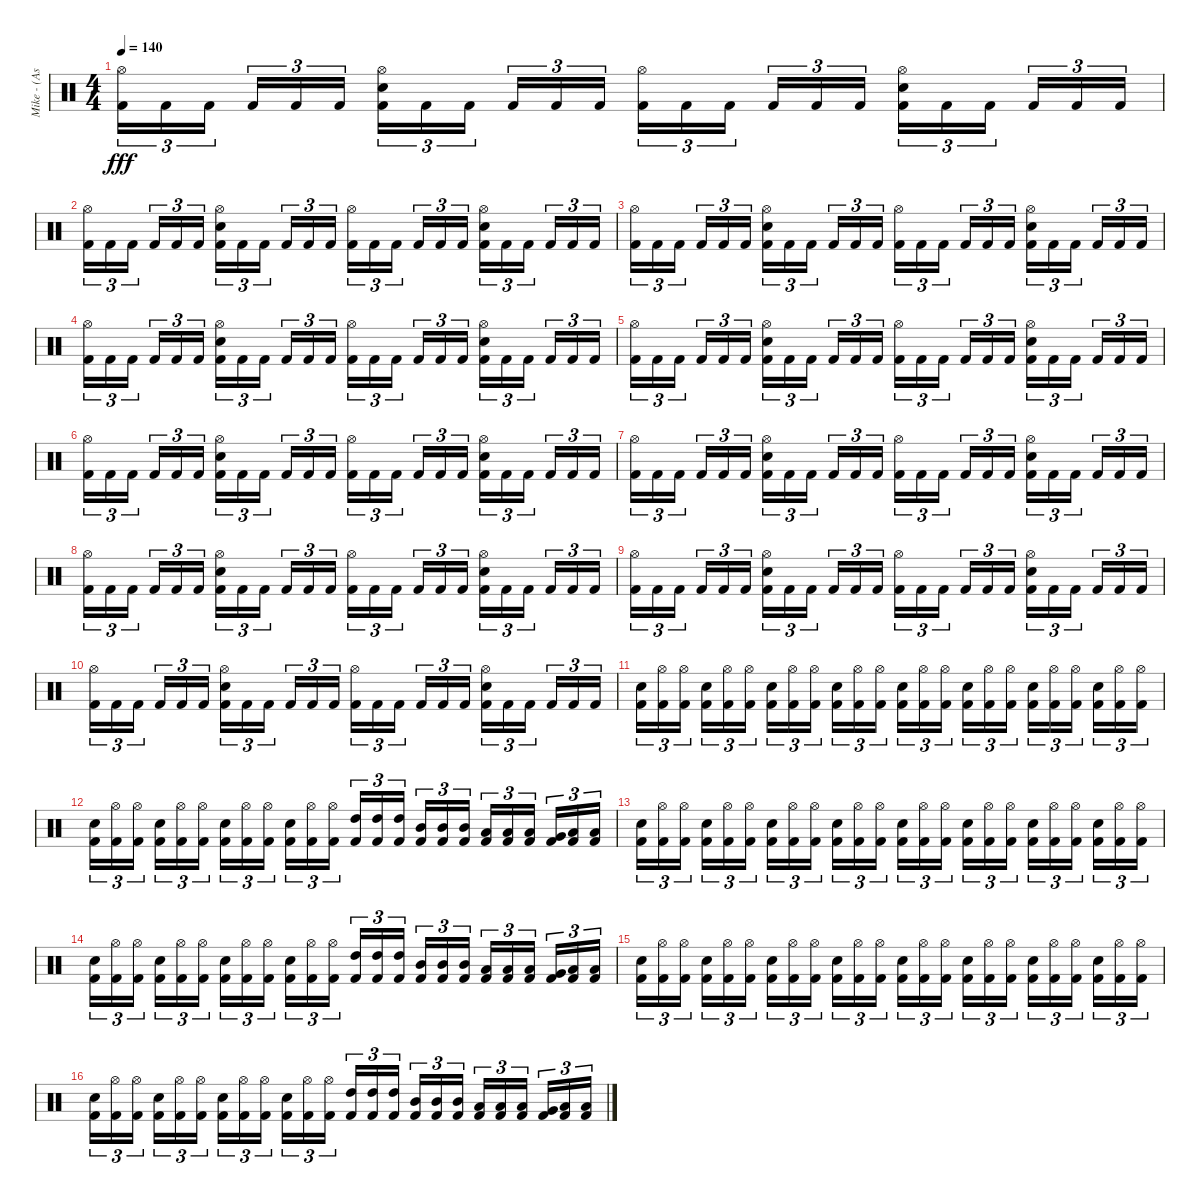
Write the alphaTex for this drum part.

\track ("Mike - (Assault and Battery)" "Mike - (As") {instrument percussion}
\staff {score}
\articulation defaults
\ts (4 4)
\tempo 140
\clef neutral
\ks c
("Hi-Hat (open)" "Kick (hit) 2").16{tu (3 2) dy fff} "Kick (hit) 2".16{tu (3 2)} "Kick (hit) 2".16{tu (3 2)} "Kick (hit) 2".16{tu (3 2)} "Kick (hit) 2".16{tu (3 2)} "Kick (hit) 2".16{tu (3 2)} ("Hi-Hat (open)" "Electric Snare (hit)" "Kick (hit) 2").16{tu (3 2)} "Kick (hit) 2".16{tu (3 2)} "Kick (hit) 2".16{tu (3 2)} "Kick (hit) 2".16{tu (3 2)} "Kick (hit) 2".16{tu (3 2)} "Kick (hit) 2".16{tu (3 2)} ("Hi-Hat (open)" "Kick (hit) 2").16{tu (3 2)} "Kick (hit) 2".16{tu (3 2)} "Kick (hit) 2".16{tu (3 2)} "Kick (hit) 2".16{tu (3 2)} "Kick (hit) 2".16{tu (3 2)} "Kick (hit) 2".16{tu (3 2)} ("Hi-Hat (open)" "Electric Snare (hit)" "Kick (hit) 2").16{tu (3 2)} "Kick (hit) 2".16{tu (3 2)} "Kick (hit) 2".16{tu (3 2)} "Kick (hit) 2".16{tu (3 2)} "Kick (hit) 2".16{tu (3 2)} "Kick (hit) 2".16{tu (3 2)} |
("Hi-Hat (open)" "Kick (hit) 2").16{tu (3 2)} "Kick (hit) 2".16{tu (3 2)} "Kick (hit) 2".16{tu (3 2)} "Kick (hit) 2".16{tu (3 2)} "Kick (hit) 2".16{tu (3 2)} "Kick (hit) 2".16{tu (3 2)} ("Hi-Hat (open)" "Electric Snare (hit)" "Kick (hit) 2").16{tu (3 2)} "Kick (hit) 2".16{tu (3 2)} "Kick (hit) 2".16{tu (3 2)} "Kick (hit) 2".16{tu (3 2)} "Kick (hit) 2".16{tu (3 2)} "Kick (hit) 2".16{tu (3 2)} ("Hi-Hat (open)" "Kick (hit) 2").16{tu (3 2)} "Kick (hit) 2".16{tu (3 2)} "Kick (hit) 2".16{tu (3 2)} "Kick (hit) 2".16{tu (3 2)} "Kick (hit) 2".16{tu (3 2)} "Kick (hit) 2".16{tu (3 2)} ("Hi-Hat (open)" "Electric Snare (hit)" "Kick (hit) 2").16{tu (3 2)} "Kick (hit) 2".16{tu (3 2)} "Kick (hit) 2".16{tu (3 2)} "Kick (hit) 2".16{tu (3 2)} "Kick (hit) 2".16{tu (3 2)} "Kick (hit) 2".16{tu (3 2)} |
("Hi-Hat (open)" "Kick (hit) 2").16{tu (3 2)} "Kick (hit) 2".16{tu (3 2)} "Kick (hit) 2".16{tu (3 2)} "Kick (hit) 2".16{tu (3 2)} "Kick (hit) 2".16{tu (3 2)} "Kick (hit) 2".16{tu (3 2)} ("Hi-Hat (open)" "Electric Snare (hit)" "Kick (hit) 2").16{tu (3 2)} "Kick (hit) 2".16{tu (3 2)} "Kick (hit) 2".16{tu (3 2)} "Kick (hit) 2".16{tu (3 2)} "Kick (hit) 2".16{tu (3 2)} "Kick (hit) 2".16{tu (3 2)} ("Hi-Hat (open)" "Kick (hit) 2").16{tu (3 2)} "Kick (hit) 2".16{tu (3 2)} "Kick (hit) 2".16{tu (3 2)} "Kick (hit) 2".16{tu (3 2)} "Kick (hit) 2".16{tu (3 2)} "Kick (hit) 2".16{tu (3 2)} ("Hi-Hat (open)" "Electric Snare (hit)" "Kick (hit) 2").16{tu (3 2)} "Kick (hit) 2".16{tu (3 2)} "Kick (hit) 2".16{tu (3 2)} "Kick (hit) 2".16{tu (3 2)} "Kick (hit) 2".16{tu (3 2)} "Kick (hit) 2".16{tu (3 2)} |
("Hi-Hat (open)" "Kick (hit) 2").16{tu (3 2)} "Kick (hit) 2".16{tu (3 2)} "Kick (hit) 2".16{tu (3 2)} "Kick (hit) 2".16{tu (3 2)} "Kick (hit) 2".16{tu (3 2)} "Kick (hit) 2".16{tu (3 2)} ("Hi-Hat (open)" "Electric Snare (hit)" "Kick (hit) 2").16{tu (3 2)} "Kick (hit) 2".16{tu (3 2)} "Kick (hit) 2".16{tu (3 2)} "Kick (hit) 2".16{tu (3 2)} "Kick (hit) 2".16{tu (3 2)} "Kick (hit) 2".16{tu (3 2)} ("Hi-Hat (open)" "Kick (hit) 2").16{tu (3 2)} "Kick (hit) 2".16{tu (3 2)} "Kick (hit) 2".16{tu (3 2)} "Kick (hit) 2".16{tu (3 2)} "Kick (hit) 2".16{tu (3 2)} "Kick (hit) 2".16{tu (3 2)} ("Hi-Hat (open)" "Electric Snare (hit)" "Kick (hit) 2").16{tu (3 2)} "Kick (hit) 2".16{tu (3 2)} "Kick (hit) 2".16{tu (3 2)} "Kick (hit) 2".16{tu (3 2)} "Kick (hit) 2".16{tu (3 2)} "Kick (hit) 2".16{tu (3 2)} |
("Hi-Hat (open)" "Kick (hit) 2").16{tu (3 2)} "Kick (hit) 2".16{tu (3 2)} "Kick (hit) 2".16{tu (3 2)} "Kick (hit) 2".16{tu (3 2)} "Kick (hit) 2".16{tu (3 2)} "Kick (hit) 2".16{tu (3 2)} ("Hi-Hat (open)" "Electric Snare (hit)" "Kick (hit) 2").16{tu (3 2)} "Kick (hit) 2".16{tu (3 2)} "Kick (hit) 2".16{tu (3 2)} "Kick (hit) 2".16{tu (3 2)} "Kick (hit) 2".16{tu (3 2)} "Kick (hit) 2".16{tu (3 2)} ("Hi-Hat (open)" "Kick (hit) 2").16{tu (3 2)} "Kick (hit) 2".16{tu (3 2)} "Kick (hit) 2".16{tu (3 2)} "Kick (hit) 2".16{tu (3 2)} "Kick (hit) 2".16{tu (3 2)} "Kick (hit) 2".16{tu (3 2)} ("Hi-Hat (open)" "Electric Snare (hit)" "Kick (hit) 2").16{tu (3 2)} "Kick (hit) 2".16{tu (3 2)} "Kick (hit) 2".16{tu (3 2)} "Kick (hit) 2".16{tu (3 2)} "Kick (hit) 2".16{tu (3 2)} "Kick (hit) 2".16{tu (3 2)} |
("Hi-Hat (open)" "Kick (hit) 2").16{tu (3 2)} "Kick (hit) 2".16{tu (3 2)} "Kick (hit) 2".16{tu (3 2)} "Kick (hit) 2".16{tu (3 2)} "Kick (hit) 2".16{tu (3 2)} "Kick (hit) 2".16{tu (3 2)} ("Hi-Hat (open)" "Electric Snare (hit)" "Kick (hit) 2").16{tu (3 2)} "Kick (hit) 2".16{tu (3 2)} "Kick (hit) 2".16{tu (3 2)} "Kick (hit) 2".16{tu (3 2)} "Kick (hit) 2".16{tu (3 2)} "Kick (hit) 2".16{tu (3 2)} ("Hi-Hat (open)" "Kick (hit) 2").16{tu (3 2)} "Kick (hit) 2".16{tu (3 2)} "Kick (hit) 2".16{tu (3 2)} "Kick (hit) 2".16{tu (3 2)} "Kick (hit) 2".16{tu (3 2)} "Kick (hit) 2".16{tu (3 2)} ("Hi-Hat (open)" "Electric Snare (hit)" "Kick (hit) 2").16{tu (3 2)} "Kick (hit) 2".16{tu (3 2)} "Kick (hit) 2".16{tu (3 2)} "Kick (hit) 2".16{tu (3 2)} "Kick (hit) 2".16{tu (3 2)} "Kick (hit) 2".16{tu (3 2)} |
("Hi-Hat (open)" "Kick (hit) 2").16{tu (3 2)} "Kick (hit) 2".16{tu (3 2)} "Kick (hit) 2".16{tu (3 2)} "Kick (hit) 2".16{tu (3 2)} "Kick (hit) 2".16{tu (3 2)} "Kick (hit) 2".16{tu (3 2)} ("Hi-Hat (open)" "Electric Snare (hit)" "Kick (hit) 2").16{tu (3 2)} "Kick (hit) 2".16{tu (3 2)} "Kick (hit) 2".16{tu (3 2)} "Kick (hit) 2".16{tu (3 2)} "Kick (hit) 2".16{tu (3 2)} "Kick (hit) 2".16{tu (3 2)} ("Hi-Hat (open)" "Kick (hit) 2").16{tu (3 2)} "Kick (hit) 2".16{tu (3 2)} "Kick (hit) 2".16{tu (3 2)} "Kick (hit) 2".16{tu (3 2)} "Kick (hit) 2".16{tu (3 2)} "Kick (hit) 2".16{tu (3 2)} ("Hi-Hat (open)" "Electric Snare (hit)" "Kick (hit) 2").16{tu (3 2)} "Kick (hit) 2".16{tu (3 2)} "Kick (hit) 2".16{tu (3 2)} "Kick (hit) 2".16{tu (3 2)} "Kick (hit) 2".16{tu (3 2)} "Kick (hit) 2".16{tu (3 2)} |
("Hi-Hat (open)" "Kick (hit) 2").16{tu (3 2)} "Kick (hit) 2".16{tu (3 2)} "Kick (hit) 2".16{tu (3 2)} "Kick (hit) 2".16{tu (3 2)} "Kick (hit) 2".16{tu (3 2)} "Kick (hit) 2".16{tu (3 2)} ("Hi-Hat (open)" "Electric Snare (hit)" "Kick (hit) 2").16{tu (3 2)} "Kick (hit) 2".16{tu (3 2)} "Kick (hit) 2".16{tu (3 2)} "Kick (hit) 2".16{tu (3 2)} "Kick (hit) 2".16{tu (3 2)} "Kick (hit) 2".16{tu (3 2)} ("Hi-Hat (open)" "Kick (hit) 2").16{tu (3 2)} "Kick (hit) 2".16{tu (3 2)} "Kick (hit) 2".16{tu (3 2)} "Kick (hit) 2".16{tu (3 2)} "Kick (hit) 2".16{tu (3 2)} "Kick (hit) 2".16{tu (3 2)} ("Hi-Hat (open)" "Electric Snare (hit)" "Kick (hit) 2").16{tu (3 2)} "Kick (hit) 2".16{tu (3 2)} "Kick (hit) 2".16{tu (3 2)} "Kick (hit) 2".16{tu (3 2)} "Kick (hit) 2".16{tu (3 2)} "Kick (hit) 2".16{tu (3 2)} |
("Hi-Hat (open)" "Kick (hit) 2").16{tu (3 2)} "Kick (hit) 2".16{tu (3 2)} "Kick (hit) 2".16{tu (3 2)} "Kick (hit) 2".16{tu (3 2)} "Kick (hit) 2".16{tu (3 2)} "Kick (hit) 2".16{tu (3 2)} ("Hi-Hat (open)" "Electric Snare (hit)" "Kick (hit) 2").16{tu (3 2)} "Kick (hit) 2".16{tu (3 2)} "Kick (hit) 2".16{tu (3 2)} "Kick (hit) 2".16{tu (3 2)} "Kick (hit) 2".16{tu (3 2)} "Kick (hit) 2".16{tu (3 2)} ("Hi-Hat (open)" "Kick (hit) 2").16{tu (3 2)} "Kick (hit) 2".16{tu (3 2)} "Kick (hit) 2".16{tu (3 2)} "Kick (hit) 2".16{tu (3 2)} "Kick (hit) 2".16{tu (3 2)} "Kick (hit) 2".16{tu (3 2)} ("Hi-Hat (open)" "Electric Snare (hit)" "Kick (hit) 2").16{tu (3 2)} "Kick (hit) 2".16{tu (3 2)} "Kick (hit) 2".16{tu (3 2)} "Kick (hit) 2".16{tu (3 2)} "Kick (hit) 2".16{tu (3 2)} "Kick (hit) 2".16{tu (3 2)} |
("Hi-Hat (open)" "Kick (hit) 2").16{tu (3 2)} "Kick (hit) 2".16{tu (3 2)} "Kick (hit) 2".16{tu (3 2)} "Kick (hit) 2".16{tu (3 2)} "Kick (hit) 2".16{tu (3 2)} "Kick (hit) 2".16{tu (3 2)} ("Hi-Hat (open)" "Electric Snare (hit)" "Kick (hit) 2").16{tu (3 2)} "Kick (hit) 2".16{tu (3 2)} "Kick (hit) 2".16{tu (3 2)} "Kick (hit) 2".16{tu (3 2)} "Kick (hit) 2".16{tu (3 2)} "Kick (hit) 2".16{tu (3 2)} ("Hi-Hat (open)" "Kick (hit) 2").16{tu (3 2)} "Kick (hit) 2".16{tu (3 2)} "Kick (hit) 2".16{tu (3 2)} "Kick (hit) 2".16{tu (3 2)} "Kick (hit) 2".16{tu (3 2)} "Kick (hit) 2".16{tu (3 2)} ("Hi-Hat (open)" "Electric Snare (hit)" "Kick (hit) 2").16{tu (3 2)} "Kick (hit) 2".16{tu (3 2)} "Kick (hit) 2".16{tu (3 2)} "Kick (hit) 2".16{tu (3 2)} "Kick (hit) 2".16{tu (3 2)} "Kick (hit) 2".16{tu (3 2)} |
("Electric Snare (hit)" "Kick (hit) 2").16{tu (3 2)} ("Hi-Hat (open)" "Kick (hit) 2").16{tu (3 2)} ("Hi-Hat (open)" "Kick (hit) 2").16{tu (3 2)} ("Electric Snare (hit)" "Kick (hit) 2").16{tu (3 2)} ("Hi-Hat (open)" "Kick (hit) 2").16{tu (3 2)} ("Hi-Hat (open)" "Kick (hit) 2").16{tu (3 2)} ("Electric Snare (hit)" "Kick (hit) 2").16{tu (3 2)} ("Hi-Hat (open)" "Kick (hit) 2").16{tu (3 2)} ("Hi-Hat (open)" "Kick (hit) 2").16{tu (3 2)} ("Electric Snare (hit)" "Kick (hit) 2").16{tu (3 2)} ("Hi-Hat (open)" "Kick (hit) 2").16{tu (3 2)} ("Hi-Hat (open)" "Kick (hit) 2").16{tu (3 2)} ("Electric Snare (hit)" "Kick (hit) 2").16{tu (3 2)} ("Hi-Hat (open)" "Kick (hit) 2").16{tu (3 2)} ("Hi-Hat (open)" "Kick (hit) 2").16{tu (3 2)} ("Electric Snare (hit)" "Kick (hit) 2").16{tu (3 2)} ("Hi-Hat (open)" "Kick (hit) 2").16{tu (3 2)} ("Hi-Hat (open)" "Kick (hit) 2").16{tu (3 2)} ("Electric Snare (hit)" "Kick (hit) 2").16{tu (3 2)} ("Hi-Hat (open)" "Kick (hit) 2").16{tu (3 2)} ("Hi-Hat (open)" "Kick (hit) 2").16{tu (3 2)} ("Electric Snare (hit)" "Kick (hit) 2").16{tu (3 2)} ("Hi-Hat (open)" "Kick (hit) 2").16{tu (3 2)} ("Hi-Hat (open)" "Kick (hit) 2").16{tu (3 2)} |
("Electric Snare (hit)" "Kick (hit) 2").16{tu (3 2)} ("Hi-Hat (open)" "Kick (hit) 2").16{tu (3 2)} ("Hi-Hat (open)" "Kick (hit) 2").16{tu (3 2)} ("Electric Snare (hit)" "Kick (hit) 2").16{tu (3 2)} ("Hi-Hat (open)" "Kick (hit) 2").16{tu (3 2)} ("Hi-Hat (open)" "Kick (hit) 2").16{tu (3 2)} ("Electric Snare (hit)" "Kick (hit) 2").16{tu (3 2)} ("Hi-Hat (open)" "Kick (hit) 2").16{tu (3 2)} ("Hi-Hat (open)" "Kick (hit) 2").16{tu (3 2)} ("Electric Snare (hit)" "Kick (hit) 2").16{tu (3 2)} ("Hi-Hat (open)" "Kick (hit) 2").16{tu (3 2)} ("Hi-Hat (open)" "Kick (hit) 2").16{tu (3 2)} ("High Tom (hit)" "Kick (hit) 2").16{tu (3 2)} ("High Tom (hit)" "Kick (hit) 2").16{tu (3 2)} ("High Tom (hit)" "Kick (hit) 2").16{tu (3 2)} ("Mid Tom (hit)" "Kick (hit) 2").16{tu (3 2)} ("Mid Tom (hit)" "Kick (hit) 2").16{tu (3 2)} ("Mid Tom (hit)" "Kick (hit) 2").16{tu (3 2)} ("Low Tom (hit)" "Kick (hit) 2").16{tu (3 2)} ("Low Tom (hit)" "Kick (hit) 2").16{tu (3 2)} ("Low Tom (hit)" "Kick (hit) 2").16{tu (3 2)} ("Very Low Tom (hit)" "Kick (hit) 2").16{tu (3 2)} ("Low Floor Tom (hit)" "Kick (hit) 2").16{tu (3 2)} ("Low Floor Tom (hit)" "Kick (hit) 2").16{tu (3 2)} |
("Electric Snare (hit)" "Kick (hit) 2").16{tu (3 2)} ("Hi-Hat (open)" "Kick (hit) 2").16{tu (3 2)} ("Hi-Hat (open)" "Kick (hit) 2").16{tu (3 2)} ("Electric Snare (hit)" "Kick (hit) 2").16{tu (3 2)} ("Hi-Hat (open)" "Kick (hit) 2").16{tu (3 2)} ("Hi-Hat (open)" "Kick (hit) 2").16{tu (3 2)} ("Electric Snare (hit)" "Kick (hit) 2").16{tu (3 2)} ("Hi-Hat (open)" "Kick (hit) 2").16{tu (3 2)} ("Hi-Hat (open)" "Kick (hit) 2").16{tu (3 2)} ("Electric Snare (hit)" "Kick (hit) 2").16{tu (3 2)} ("Hi-Hat (open)" "Kick (hit) 2").16{tu (3 2)} ("Hi-Hat (open)" "Kick (hit) 2").16{tu (3 2)} ("Electric Snare (hit)" "Kick (hit) 2").16{tu (3 2)} ("Hi-Hat (open)" "Kick (hit) 2").16{tu (3 2)} ("Hi-Hat (open)" "Kick (hit) 2").16{tu (3 2)} ("Electric Snare (hit)" "Kick (hit) 2").16{tu (3 2)} ("Hi-Hat (open)" "Kick (hit) 2").16{tu (3 2)} ("Hi-Hat (open)" "Kick (hit) 2").16{tu (3 2)} ("Electric Snare (hit)" "Kick (hit) 2").16{tu (3 2)} ("Hi-Hat (open)" "Kick (hit) 2").16{tu (3 2)} ("Hi-Hat (open)" "Kick (hit) 2").16{tu (3 2)} ("Electric Snare (hit)" "Kick (hit) 2").16{tu (3 2)} ("Hi-Hat (open)" "Kick (hit) 2").16{tu (3 2)} ("Hi-Hat (open)" "Kick (hit) 2").16{tu (3 2)} |
("Electric Snare (hit)" "Kick (hit) 2").16{tu (3 2)} ("Hi-Hat (open)" "Kick (hit) 2").16{tu (3 2)} ("Hi-Hat (open)" "Kick (hit) 2").16{tu (3 2)} ("Electric Snare (hit)" "Kick (hit) 2").16{tu (3 2)} ("Hi-Hat (open)" "Kick (hit) 2").16{tu (3 2)} ("Hi-Hat (open)" "Kick (hit) 2").16{tu (3 2)} ("Electric Snare (hit)" "Kick (hit) 2").16{tu (3 2)} ("Hi-Hat (open)" "Kick (hit) 2").16{tu (3 2)} ("Hi-Hat (open)" "Kick (hit) 2").16{tu (3 2)} ("Electric Snare (hit)" "Kick (hit) 2").16{tu (3 2)} ("Hi-Hat (open)" "Kick (hit) 2").16{tu (3 2)} ("Hi-Hat (open)" "Kick (hit) 2").16{tu (3 2)} ("High Tom (hit)" "Kick (hit) 2").16{tu (3 2)} ("High Tom (hit)" "Kick (hit) 2").16{tu (3 2)} ("High Tom (hit)" "Kick (hit) 2").16{tu (3 2)} ("Mid Tom (hit)" "Kick (hit) 2").16{tu (3 2)} ("Mid Tom (hit)" "Kick (hit) 2").16{tu (3 2)} ("Mid Tom (hit)" "Kick (hit) 2").16{tu (3 2)} ("Low Tom (hit)" "Kick (hit) 2").16{tu (3 2)} ("Low Tom (hit)" "Kick (hit) 2").16{tu (3 2)} ("Low Tom (hit)" "Kick (hit) 2").16{tu (3 2)} ("Very Low Tom (hit)" "Kick (hit) 2").16{tu (3 2)} ("Low Floor Tom (hit)" "Kick (hit) 2").16{tu (3 2)} ("Low Floor Tom (hit)" "Kick (hit) 2").16{tu (3 2)} |
("Electric Snare (hit)" "Kick (hit) 2").16{tu (3 2)} ("Hi-Hat (open)" "Kick (hit) 2").16{tu (3 2)} ("Hi-Hat (open)" "Kick (hit) 2").16{tu (3 2)} ("Electric Snare (hit)" "Kick (hit) 2").16{tu (3 2)} ("Hi-Hat (open)" "Kick (hit) 2").16{tu (3 2)} ("Hi-Hat (open)" "Kick (hit) 2").16{tu (3 2)} ("Electric Snare (hit)" "Kick (hit) 2").16{tu (3 2)} ("Hi-Hat (open)" "Kick (hit) 2").16{tu (3 2)} ("Hi-Hat (open)" "Kick (hit) 2").16{tu (3 2)} ("Electric Snare (hit)" "Kick (hit) 2").16{tu (3 2)} ("Hi-Hat (open)" "Kick (hit) 2").16{tu (3 2)} ("Hi-Hat (open)" "Kick (hit) 2").16{tu (3 2)} ("Electric Snare (hit)" "Kick (hit) 2").16{tu (3 2)} ("Hi-Hat (open)" "Kick (hit) 2").16{tu (3 2)} ("Hi-Hat (open)" "Kick (hit) 2").16{tu (3 2)} ("Electric Snare (hit)" "Kick (hit) 2").16{tu (3 2)} ("Hi-Hat (open)" "Kick (hit) 2").16{tu (3 2)} ("Hi-Hat (open)" "Kick (hit) 2").16{tu (3 2)} ("Electric Snare (hit)" "Kick (hit) 2").16{tu (3 2)} ("Hi-Hat (open)" "Kick (hit) 2").16{tu (3 2)} ("Hi-Hat (open)" "Kick (hit) 2").16{tu (3 2)} ("Electric Snare (hit)" "Kick (hit) 2").16{tu (3 2)} ("Hi-Hat (open)" "Kick (hit) 2").16{tu (3 2)} ("Hi-Hat (open)" "Kick (hit) 2").16{tu (3 2)} |
("Electric Snare (hit)" "Kick (hit) 2").16{tu (3 2)} ("Hi-Hat (open)" "Kick (hit) 2").16{tu (3 2)} ("Hi-Hat (open)" "Kick (hit) 2").16{tu (3 2)} ("Electric Snare (hit)" "Kick (hit) 2").16{tu (3 2)} ("Hi-Hat (open)" "Kick (hit) 2").16{tu (3 2)} ("Hi-Hat (open)" "Kick (hit) 2").16{tu (3 2)} ("Electric Snare (hit)" "Kick (hit) 2").16{tu (3 2)} ("Hi-Hat (open)" "Kick (hit) 2").16{tu (3 2)} ("Hi-Hat (open)" "Kick (hit) 2").16{tu (3 2)} ("Electric Snare (hit)" "Kick (hit) 2").16{tu (3 2)} ("Hi-Hat (open)" "Kick (hit) 2").16{tu (3 2)} ("Hi-Hat (open)" "Kick (hit) 2").16{tu (3 2)} ("High Tom (hit)" "Kick (hit) 2").16{tu (3 2)} ("High Tom (hit)" "Kick (hit) 2").16{tu (3 2)} ("High Tom (hit)" "Kick (hit) 2").16{tu (3 2)} ("Mid Tom (hit)" "Kick (hit) 2").16{tu (3 2)} ("Mid Tom (hit)" "Kick (hit) 2").16{tu (3 2)} ("Mid Tom (hit)" "Kick (hit) 2").16{tu (3 2)} ("Low Tom (hit)" "Kick (hit) 2").16{tu (3 2)} ("Low Tom (hit)" "Kick (hit) 2").16{tu (3 2)} ("Low Tom (hit)" "Kick (hit) 2").16{tu (3 2)} ("Very Low Tom (hit)" "Kick (hit) 2").16{tu (3 2)} ("Low Floor Tom (hit)" "Kick (hit) 2").16{tu (3 2)} ("Low Floor Tom (hit)" "Kick (hit) 2").16{tu (3 2)}
